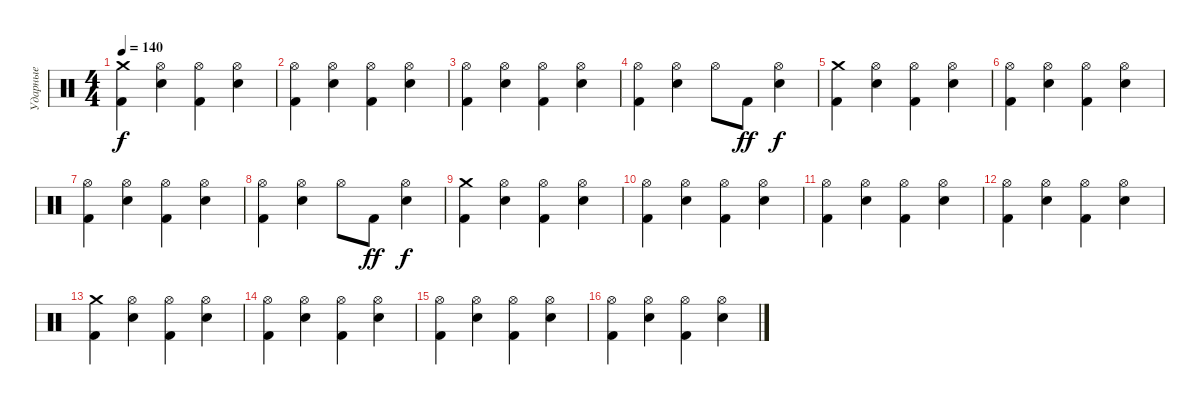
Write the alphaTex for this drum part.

\track ("Ударные" "Ударные") {instrument percussion}
\staff {score}
\articulation defaults
\ts (4 4)
\tempo 140
\clef neutral
\ks c
("Crash medium (hit)" "Kick (hit) 2").4{dy f} ("Hi-Hat (open)" "Electric Snare (hit)").4 ("Hi-Hat (open)" "Kick (hit) 2").4 ("Hi-Hat (open)" "Electric Snare (hit)").4 |
("Hi-Hat (open)" "Kick (hit) 2").4 ("Hi-Hat (open)" "Electric Snare (hit)").4 ("Hi-Hat (open)" "Kick (hit) 2").4 ("Hi-Hat (open)" "Electric Snare (hit)").4 |
("Hi-Hat (open)" "Kick (hit) 2").4 ("Hi-Hat (open)" "Electric Snare (hit)").4 ("Hi-Hat (open)" "Kick (hit) 2").4 ("Hi-Hat (open)" "Electric Snare (hit)").4 |
("Hi-Hat (open)" "Kick (hit) 2").4 ("Hi-Hat (open)" "Electric Snare (hit)").4 "Hi-Hat (open)".8 "Kick (hit) 2".8{dy ff} ("Hi-Hat (open)" "Electric Snare (hit)").4{dy f} |
("Crash medium (hit)" "Kick (hit) 2").4 ("Hi-Hat (open)" "Electric Snare (hit)").4 ("Hi-Hat (open)" "Kick (hit) 2").4 ("Hi-Hat (open)" "Electric Snare (hit)").4 |
("Hi-Hat (open)" "Kick (hit) 2").4 ("Hi-Hat (open)" "Electric Snare (hit)").4 ("Hi-Hat (open)" "Kick (hit) 2").4 ("Hi-Hat (open)" "Electric Snare (hit)").4 |
("Hi-Hat (open)" "Kick (hit) 2").4 ("Hi-Hat (open)" "Electric Snare (hit)").4 ("Hi-Hat (open)" "Kick (hit) 2").4 ("Hi-Hat (open)" "Electric Snare (hit)").4 |
("Hi-Hat (open)" "Kick (hit) 2").4 ("Hi-Hat (open)" "Electric Snare (hit)").4 "Hi-Hat (open)".8 "Kick (hit) 2".8{dy ff} ("Hi-Hat (open)" "Electric Snare (hit)").4{dy f} |
("Crash medium (hit)" "Kick (hit) 2").4 ("Hi-Hat (open)" "Electric Snare (hit)").4 ("Hi-Hat (open)" "Kick (hit) 2").4 ("Hi-Hat (open)" "Electric Snare (hit)").4 |
("Hi-Hat (open)" "Kick (hit) 2").4 ("Hi-Hat (open)" "Electric Snare (hit)").4 ("Hi-Hat (open)" "Kick (hit) 2").4 ("Hi-Hat (open)" "Electric Snare (hit)").4 |
("Hi-Hat (open)" "Kick (hit) 2").4 ("Hi-Hat (open)" "Electric Snare (hit)").4 ("Hi-Hat (open)" "Kick (hit) 2").4 ("Hi-Hat (open)" "Electric Snare (hit)").4 |
("Hi-Hat (open)" "Kick (hit) 2").4 ("Hi-Hat (open)" "Electric Snare (hit)").4 ("Hi-Hat (open)" "Kick (hit) 2").4 ("Hi-Hat (open)" "Electric Snare (hit)").4 |
("Crash medium (hit)" "Kick (hit) 2").4 ("Hi-Hat (open)" "Electric Snare (hit)").4 ("Hi-Hat (open)" "Kick (hit) 2").4 ("Hi-Hat (open)" "Electric Snare (hit)").4 |
("Hi-Hat (open)" "Kick (hit) 2").4 ("Hi-Hat (open)" "Electric Snare (hit)").4 ("Hi-Hat (open)" "Kick (hit) 2").4 ("Hi-Hat (open)" "Electric Snare (hit)").4 |
("Hi-Hat (open)" "Kick (hit) 2").4 ("Hi-Hat (open)" "Electric Snare (hit)").4 ("Hi-Hat (open)" "Kick (hit) 2").4 ("Hi-Hat (open)" "Electric Snare (hit)").4 |
("Hi-Hat (open)" "Kick (hit) 2").4 ("Hi-Hat (open)" "Electric Snare (hit)").4 ("Hi-Hat (open)" "Kick (hit) 2").4 ("Hi-Hat (open)" "Electric Snare (hit)").4
